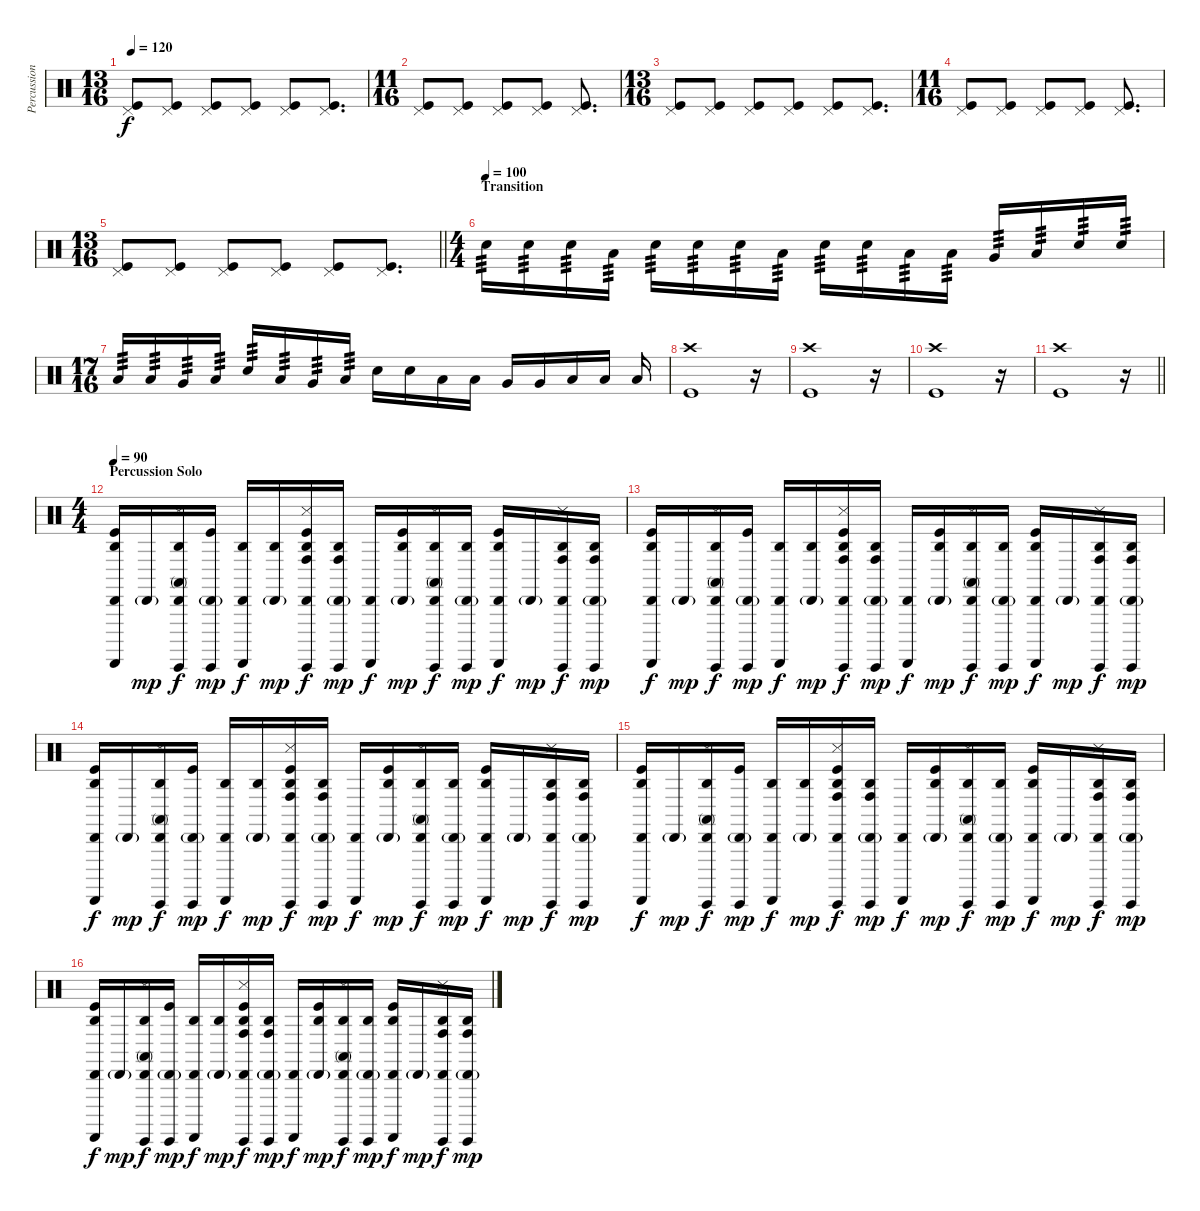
\track ("Percussion" "Percussion") {instrument percussion}
\staff {score}
\articulation defaults
\ts (13 16)
\tempo 120
\clef neutral
\ks c
("Pedal Hi-Hat (hit)" "Kick (hit)").8{dy f} ("Pedal Hi-Hat (hit)" "Kick (hit)").8 ("Pedal Hi-Hat (hit)" "Kick (hit)").8 ("Pedal Hi-Hat (hit)" "Kick (hit)").8 ("Pedal Hi-Hat (hit)" "Kick (hit)").8 ("Pedal Hi-Hat (hit)" "Kick (hit)").8{d} |
\ts (11 16)
("Pedal Hi-Hat (hit)" "Kick (hit)").8 ("Pedal Hi-Hat (hit)" "Kick (hit)").8 ("Pedal Hi-Hat (hit)" "Kick (hit)").8 ("Pedal Hi-Hat (hit)" "Kick (hit)").8 ("Pedal Hi-Hat (hit)" "Kick (hit)").8{d} |
\ts (13 16)
("Pedal Hi-Hat (hit)" "Kick (hit)").8 ("Pedal Hi-Hat (hit)" "Kick (hit)").8 ("Pedal Hi-Hat (hit)" "Kick (hit)").8 ("Pedal Hi-Hat (hit)" "Kick (hit)").8 ("Pedal Hi-Hat (hit)" "Kick (hit)").8 ("Pedal Hi-Hat (hit)" "Kick (hit)").8{d} |
\ts (11 16)
("Pedal Hi-Hat (hit)" "Kick (hit)").8 ("Pedal Hi-Hat (hit)" "Kick (hit)").8 ("Pedal Hi-Hat (hit)" "Kick (hit)").8 ("Pedal Hi-Hat (hit)" "Kick (hit)").8 ("Pedal Hi-Hat (hit)" "Kick (hit)").8{d} |
\ts (13 16)
\barLineRight lightlight
("Pedal Hi-Hat (hit)" "Kick (hit)").8 ("Pedal Hi-Hat (hit)" "Kick (hit)").8 ("Pedal Hi-Hat (hit)" "Kick (hit)").8 ("Pedal Hi-Hat (hit)" "Kick (hit)").8 ("Pedal Hi-Hat (hit)" "Kick (hit)").8 ("Pedal Hi-Hat (hit)" "Kick (hit)").8{d} |
\ts (4 4)
\section ("" "Transition")
\tempo (100)
"Snare (hit) 2".16{tp 3} "Snare (hit) 2".16{tp 3} "Snare (hit) 2".16{tp 3} "Low Floor Tom (hit)".16{tp 3} "Snare (hit) 2".16{tp 3} "Snare (hit) 2".16{tp 3} "Snare (hit) 2".16{tp 3} "Low Floor Tom (hit)".16{tp 3} "Snare (hit) 2".16{tp 3} "Snare (hit) 2".16{tp 3} "Low Floor Tom (hit)".16{tp 3} "Low Tom (hit)".16{tp 3} "Very Low Tom (hit)".16{tp 3} "Low Floor Tom (hit)".16{tp 3} "Snare (hit) 2".16{tp 3} "Snare (hit) 2".16{tp 3} |
\ts (17 16)
"Low Floor Tom (hit)".16{tp 3} "Low Tom (hit)".16{tp 3} "Very Low Tom (hit)".16{tp 3} "Low Floor Tom (hit)".16{tp 3} "Snare (hit) 2".16{tp 3} "Low Tom (hit)".16{tp 3} "Very Low Tom (hit)".16{tp 3} "Low Floor Tom (hit)".16{tp 3} "Snare (hit) 2".16 "Snare (hit) 2".16 "Low Tom (hit)".16 "Low Tom (hit)".16 "Very Low Tom (hit)".16 "Very Low Tom (hit)".16 "Low Floor Tom (hit)".16 "Low Floor Tom (hit)".16 "Low Floor Tom (hit)".16 |
("Crash high (hit)" "Kick (hit)").1 r.16 |
("Crash high (hit)" "Kick (hit)").1 r.16 |
("Crash high (hit)" "Kick (hit)").1 r.16 |
\barLineRight lightlight
("Crash high (hit)" "Kick (hit)").1 r.16 |
\ts (4 4)
\section ("" "Percussion Solo")
\tempo 90
("Agogo high (hit)" "Cabasa (hit)" "Guiro (scrap-return)" "Kick (hit)").16 "Cabasa (hit)"{g}.16{dy mp} ("Agogo high (hit)" "Cabasa (hit)" "Conga high (mute)" "Snare (side stick) 3" "Guiro (hit)").16{dy f} ("Cabasa (hit)"{g} "Guiro (hit)" "Kick (hit)").16{dy mp} ("Agogo high (hit)" "Cabasa (hit)" "Guiro (scrap-return)").16{dy f} ("Agogo high (hit)" "Cabasa (hit)"{g}).16{dy mp} ("Agogo high (hit)" "Cabasa (hit)" "Conga high (hit)" "Snare (side stick) 3" "Guiro (hit)" "Kick (hit)").16{dy f} ("Agogo high (hit)" "Cabasa (hit)"{g} "Conga high (hit)" "Guiro (hit)").16{dy mp} ("Cabasa (hit)" "Guiro (scrap-return)").16{dy f} ("Agogo high (hit)" "Cabasa (hit)"{g} "Kick (hit)").16{dy mp} ("Agogo high (hit)" "Cabasa (hit)" "Conga high (mute)" "Snare (side stick) 3" "Guiro (hit)").16{dy f} ("Agogo high (hit)" "Cabasa (hit)"{g} "Guiro (hit)").16{dy mp} ("Agogo high (hit)" "Cabasa (hit)" "Guiro (scrap-return)" "Kick (hit)").16{dy f} "Cabasa (hit)"{g}.16{dy mp} ("Agogo high (hit)" "Cabasa (hit)" "Conga high (hit)" "Snare (side stick) 3" "Guiro (hit)").16{dy f} ("Agogo high (hit)" "Cabasa (hit)"{g} "Conga high (hit)" "Guiro (hit)").16{dy mp} |
("Agogo high (hit)" "Cabasa (hit)" "Guiro (scrap-return)" "Kick (hit)").16{dy f} "Cabasa (hit)"{g}.16{dy mp} ("Agogo high (hit)" "Cabasa (hit)" "Conga high (mute)" "Snare (side stick) 3" "Guiro (hit)").16{dy f} ("Cabasa (hit)"{g} "Guiro (hit)" "Kick (hit)").16{dy mp} ("Agogo high (hit)" "Cabasa (hit)" "Guiro (scrap-return)").16{dy f} ("Agogo high (hit)" "Cabasa (hit)"{g}).16{dy mp} ("Agogo high (hit)" "Cabasa (hit)" "Conga high (hit)" "Snare (side stick) 3" "Guiro (hit)" "Kick (hit)").16{dy f} ("Agogo high (hit)" "Cabasa (hit)"{g} "Conga high (hit)" "Guiro (hit)").16{dy mp} ("Cabasa (hit)" "Guiro (scrap-return)").16{dy f} ("Agogo high (hit)" "Cabasa (hit)"{g} "Kick (hit)").16{dy mp} ("Agogo high (hit)" "Cabasa (hit)" "Conga high (mute)" "Snare (side stick) 3" "Guiro (hit)").16{dy f} ("Agogo high (hit)" "Cabasa (hit)"{g} "Guiro (hit)").16{dy mp} ("Agogo high (hit)" "Cabasa (hit)" "Guiro (scrap-return)" "Kick (hit)").16{dy f} "Cabasa (hit)"{g}.16{dy mp} ("Agogo high (hit)" "Cabasa (hit)" "Conga high (hit)" "Snare (side stick) 3" "Guiro (hit)").16{dy f} ("Agogo high (hit)" "Cabasa (hit)"{g} "Conga high (hit)" "Guiro (hit)").16{dy mp} |
("Agogo high (hit)" "Cabasa (hit)" "Guiro (scrap-return)" "Kick (hit)").16{dy f} "Cabasa (hit)"{g}.16{dy mp} ("Agogo high (hit)" "Cabasa (hit)" "Conga high (mute)" "Snare (side stick) 3" "Guiro (hit)").16{dy f} ("Cabasa (hit)"{g} "Guiro (hit)" "Kick (hit)").16{dy mp} ("Agogo high (hit)" "Cabasa (hit)" "Guiro (scrap-return)").16{dy f} ("Agogo high (hit)" "Cabasa (hit)"{g}).16{dy mp} ("Agogo high (hit)" "Cabasa (hit)" "Conga high (hit)" "Snare (side stick) 3" "Guiro (hit)" "Kick (hit)").16{dy f} ("Agogo high (hit)" "Cabasa (hit)"{g} "Conga high (hit)" "Guiro (hit)").16{dy mp} ("Cabasa (hit)" "Guiro (scrap-return)").16{dy f} ("Agogo high (hit)" "Cabasa (hit)"{g} "Kick (hit)").16{dy mp} ("Agogo high (hit)" "Cabasa (hit)" "Conga high (mute)" "Snare (side stick) 3" "Guiro (hit)").16{dy f} ("Agogo high (hit)" "Cabasa (hit)"{g} "Guiro (hit)").16{dy mp} ("Agogo high (hit)" "Cabasa (hit)" "Guiro (scrap-return)" "Kick (hit)").16{dy f} "Cabasa (hit)"{g}.16{dy mp} ("Agogo high (hit)" "Cabasa (hit)" "Conga high (hit)" "Snare (side stick) 3" "Guiro (hit)").16{dy f} ("Agogo high (hit)" "Cabasa (hit)"{g} "Conga high (hit)" "Guiro (hit)").16{dy mp} |
("Agogo high (hit)" "Cabasa (hit)" "Guiro (scrap-return)" "Kick (hit)").16{dy f} "Cabasa (hit)"{g}.16{dy mp} ("Agogo high (hit)" "Cabasa (hit)" "Conga high (mute)" "Snare (side stick) 3" "Guiro (hit)").16{dy f} ("Cabasa (hit)"{g} "Guiro (hit)" "Kick (hit)").16{dy mp} ("Agogo high (hit)" "Cabasa (hit)" "Guiro (scrap-return)").16{dy f} ("Agogo high (hit)" "Cabasa (hit)"{g}).16{dy mp} ("Agogo high (hit)" "Cabasa (hit)" "Conga high (hit)" "Snare (side stick) 3" "Guiro (hit)" "Kick (hit)").16{dy f} ("Agogo high (hit)" "Cabasa (hit)"{g} "Conga high (hit)" "Guiro (hit)").16{dy mp} ("Cabasa (hit)" "Guiro (scrap-return)").16{dy f} ("Agogo high (hit)" "Cabasa (hit)"{g} "Kick (hit)").16{dy mp} ("Agogo high (hit)" "Cabasa (hit)" "Conga high (mute)" "Snare (side stick) 3" "Guiro (hit)").16{dy f} ("Agogo high (hit)" "Cabasa (hit)"{g} "Guiro (hit)").16{dy mp} ("Agogo high (hit)" "Cabasa (hit)" "Guiro (scrap-return)" "Kick (hit)").16{dy f} "Cabasa (hit)"{g}.16{dy mp} ("Agogo high (hit)" "Cabasa (hit)" "Conga high (hit)" "Snare (side stick) 3" "Guiro (hit)").16{dy f} ("Agogo high (hit)" "Cabasa (hit)"{g} "Conga high (hit)" "Guiro (hit)").16{dy mp} |
("Agogo high (hit)" "Cabasa (hit)" "Guiro (scrap-return)" "Kick (hit)").16{dy f} "Cabasa (hit)"{g}.16{dy mp} ("Agogo high (hit)" "Cabasa (hit)" "Conga high (mute)" "Snare (side stick) 3" "Guiro (hit)").16{dy f} ("Cabasa (hit)"{g} "Guiro (hit)" "Kick (hit)").16{dy mp} ("Agogo high (hit)" "Cabasa (hit)" "Guiro (scrap-return)").16{dy f} ("Agogo high (hit)" "Cabasa (hit)"{g}).16{dy mp} ("Agogo high (hit)" "Cabasa (hit)" "Conga high (hit)" "Snare (side stick) 3" "Guiro (hit)" "Kick (hit)").16{dy f} ("Agogo high (hit)" "Cabasa (hit)"{g} "Conga high (hit)" "Guiro (hit)").16{dy mp} ("Cabasa (hit)" "Guiro (scrap-return)").16{dy f} ("Agogo high (hit)" "Cabasa (hit)"{g} "Kick (hit)").16{dy mp} ("Agogo high (hit)" "Cabasa (hit)" "Conga high (mute)" "Snare (side stick) 3" "Guiro (hit)").16{dy f} ("Agogo high (hit)" "Cabasa (hit)"{g} "Guiro (hit)").16{dy mp} ("Agogo high (hit)" "Cabasa (hit)" "Guiro (scrap-return)" "Kick (hit)").16{dy f} "Cabasa (hit)"{g}.16{dy mp} ("Agogo high (hit)" "Cabasa (hit)" "Conga high (hit)" "Snare (side stick) 3" "Guiro (hit)").16{dy f} ("Agogo high (hit)" "Cabasa (hit)"{g} "Conga high (hit)" "Guiro (hit)").16{dy mp}
